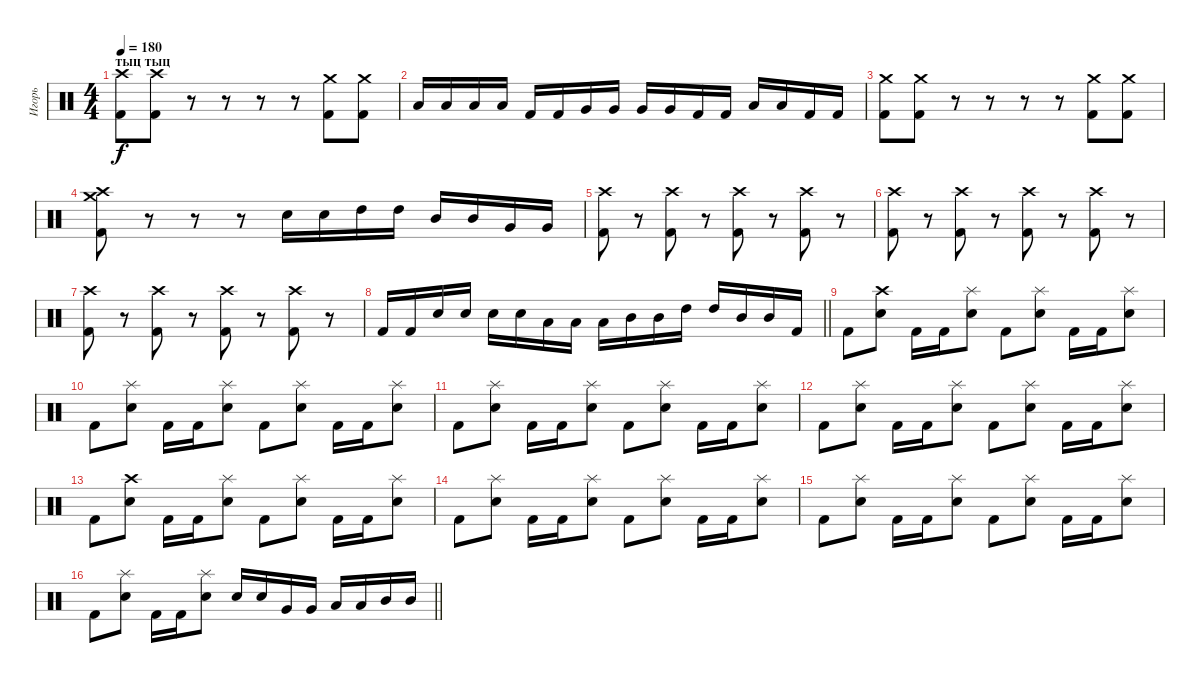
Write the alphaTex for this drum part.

\track ("Игорь" "Игорь") {instrument percussion}
\staff {score}
\articulation defaults
\ts (4 4)
\section ("" "тыц тыц")
\tempo 180
\clef neutral
\ks c
("Crash high (hit)" "Kick (hit) 2").8{dy f} ("Crash high (hit)" "Kick (hit) 2").8 r.8 r.8 r.8 r.8 ("Crash medium (hit)" "Kick (hit) 2").8 ("Crash medium (hit)" "Kick (hit) 2").8 |
"Low Tom (hit)".16 "Low Tom (hit)".16 "Low Tom (hit)".16 "Low Tom (hit)".16 "Kick (hit) 2".16 "Kick (hit) 2".16 "Very Low Tom (hit)".16 "Very Low Tom (hit)".16 "Very Low Tom (hit)".16 "Very Low Tom (hit)".16 "Kick (hit) 2".16 "Kick (hit) 2".16 "Low Floor Tom (hit)".16 "Low Floor Tom (hit)".16 "Kick (hit) 2".16 "Kick (hit) 2".16 |
("Crash medium (hit)" "Kick (hit) 2").8 ("Crash medium (hit)" "Kick (hit) 2").8 r.8 r.8 r.8 r.8 ("Crash medium (hit)" "Kick (hit) 2").8 ("Crash medium (hit)" "Kick (hit) 2").8 |
("Crash high (hit)" "Crash medium (hit)" "Kick (hit) 2").8 r.8 r.8 r.8 "Electric Snare (hit)".16 "Electric Snare (hit)".16 "High Tom (hit)".16 "High Tom (hit)".16 "Mid Tom (hit)".16 "Mid Tom (hit)".16 "Very Low Tom (hit)".16 "Very Low Tom (hit)".16 |
("Crash high (hit)" "Kick (hit) 2").8 r.8 ("Crash high (hit)" "Kick (hit) 2").8 r.8 ("Crash high (hit)" "Kick (hit) 2").8 r.8 ("Crash high (hit)" "Kick (hit) 2").8 r.8 |
("Crash high (hit)" "Kick (hit) 2").8 r.8 ("Crash high (hit)" "Kick (hit) 2").8 r.8 ("Crash high (hit)" "Kick (hit) 2").8 r.8 ("Crash high (hit)" "Kick (hit) 2").8 r.8 |
("Crash high (hit)" "Kick (hit) 2").8 r.8 ("Crash high (hit)" "Kick (hit) 2").8 r.8 ("Crash high (hit)" "Kick (hit) 2").8 r.8 ("Crash high (hit)" "Kick (hit) 2").8 r.8 |
\barLineRight lightlight "Kick (hit) 2".16 "Kick (hit) 2".16 "Electric Snare (hit)".16 "Electric Snare (hit)".16 "Electric Snare (hit)".16 "Electric Snare (hit)".16 "Low Tom (hit)".16 "Low Tom (hit)".16 "Low Tom (hit)".16 "Mid Tom (hit)".16 "Mid Tom (hit)".16 "High Tom (hit)".16 "High Tom (hit)".16 "Mid Tom (hit)".16 "Mid Tom (hit)".16 "Kick (hit) 2".16
|
"Kick (hit) 2".8 ("Crash high (hit)" "Electric Snare (hit)").8 "Kick (hit) 2".16 "Kick (hit) 2".16 ("Splash (hit)" "Electric Snare (hit)").8 "Kick (hit) 2".8 ("Splash (hit)" "Electric Snare (hit)").8 "Kick (hit) 2".16 "Kick (hit) 2".16 ("Splash (hit)" "Electric Snare (hit)").8 |
"Kick (hit) 2".8 ("Splash (hit)" "Electric Snare (hit)").8 "Kick (hit) 2".16 "Kick (hit) 2".16 ("Splash (hit)" "Electric Snare (hit)").8 "Kick (hit) 2".8 ("Splash (hit)" "Electric Snare (hit)").8 "Kick (hit) 2".16 "Kick (hit) 2".16 ("Splash (hit)" "Electric Snare (hit)").8 |
"Kick (hit) 2".8 ("Splash (hit)" "Electric Snare (hit)").8 "Kick (hit) 2".16 "Kick (hit) 2".16 ("Splash (hit)" "Electric Snare (hit)").8 "Kick (hit) 2".8 ("Splash (hit)" "Electric Snare (hit)").8 "Kick (hit) 2".16 "Kick (hit) 2".16 ("Splash (hit)" "Electric Snare (hit)").8 |
"Kick (hit) 2".8 ("Splash (hit)" "Electric Snare (hit)").8 "Kick (hit) 2".16 "Kick (hit) 2".16 ("Splash (hit)" "Electric Snare (hit)").8 "Kick (hit) 2".8 ("Splash (hit)" "Electric Snare (hit)").8 "Kick (hit) 2".16 "Kick (hit) 2".16 ("Splash (hit)" "Electric Snare (hit)").8 |
"Kick (hit) 2".8 ("Crash high (hit)" "Electric Snare (hit)").8 "Kick (hit) 2".16 "Kick (hit) 2".16 ("Splash (hit)" "Electric Snare (hit)").8 "Kick (hit) 2".8 ("Splash (hit)" "Electric Snare (hit)").8 "Kick (hit) 2".16 "Kick (hit) 2".16 ("Splash (hit)" "Electric Snare (hit)").8 |
"Kick (hit) 2".8 ("Splash (hit)" "Electric Snare (hit)").8 "Kick (hit) 2".16 "Kick (hit) 2".16 ("Splash (hit)" "Electric Snare (hit)").8 "Kick (hit) 2".8 ("Splash (hit)" "Electric Snare (hit)").8 "Kick (hit) 2".16 "Kick (hit) 2".16 ("Splash (hit)" "Electric Snare (hit)").8 |
"Kick (hit) 2".8 ("Splash (hit)" "Electric Snare (hit)").8 "Kick (hit) 2".16 "Kick (hit) 2".16 ("Splash (hit)" "Electric Snare (hit)").8 "Kick (hit) 2".8 ("Splash (hit)" "Electric Snare (hit)").8 "Kick (hit) 2".16 "Kick (hit) 2".16 ("Splash (hit)" "Electric Snare (hit)").8 |
\barLineRight lightlight "Kick (hit) 2".8
("Splash (hit)" "Electric Snare (hit)").8 "Kick (hit) 2".16 "Kick (hit) 2".16 ("Splash (hit)" "Electric Snare (hit)").8 "Electric Snare (hit)".16 "Electric Snare (hit)".16 "Very Low Tom (hit)".16 "Very Low Tom (hit)".16 "Low Tom (hit)".16 "Low Tom (hit)".16 "Mid Tom (hit)".16 "Mid Tom (hit)".16
